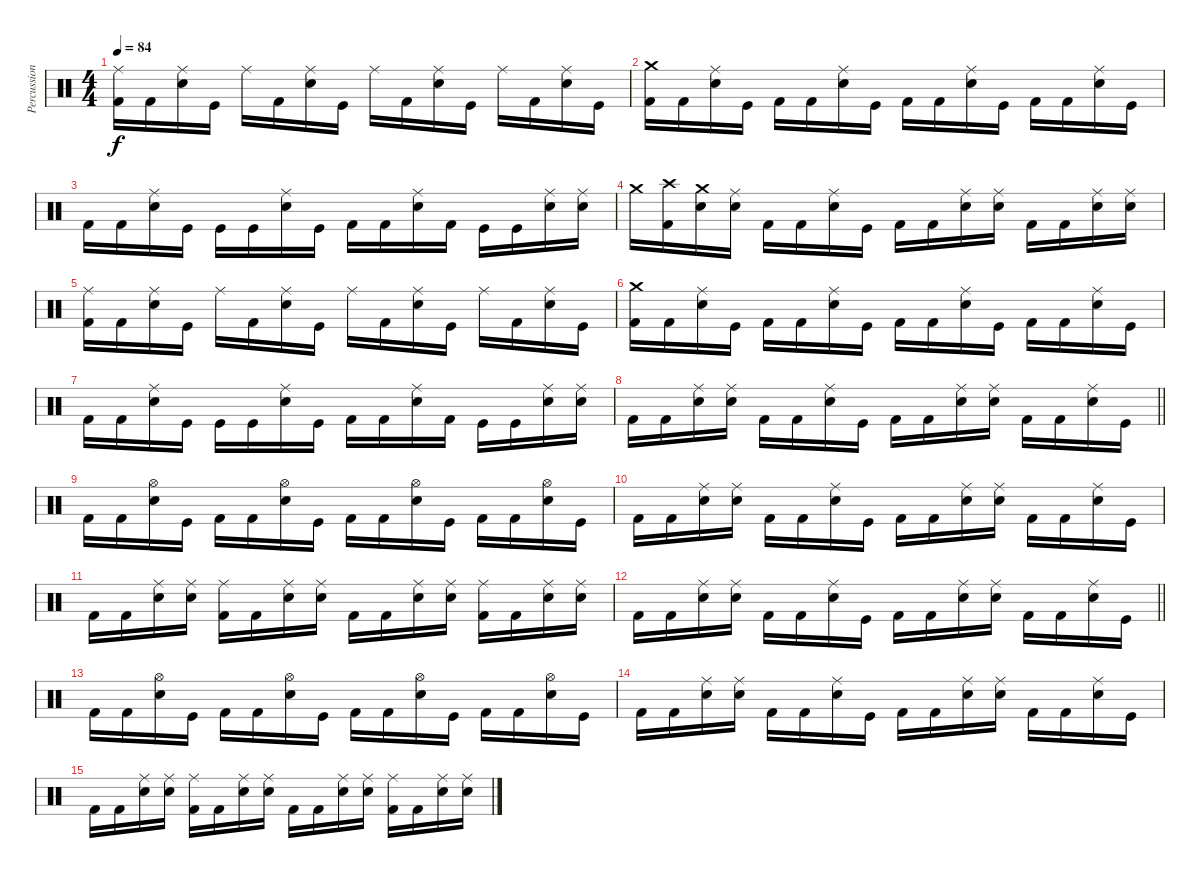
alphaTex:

\track ("Percussion" "Percussion") {instrument percussion}
\staff {score}
\articulation defaults
\ts (4 4)
\tempo 84
\clef neutral
\ks c
("Kick (hit) 2" "Ride (middle)").16{dy f} "Kick (hit) 2".16 ("Snare (hit) 2" "Ride (middle)").16 "Kick (hit)".16 "Ride (middle)".16 "Kick (hit) 2".16 ("Snare (hit) 2" "Ride (middle)").16 "Kick (hit)".16 "Ride (middle)".16 "Kick (hit) 2".16 ("Snare (hit) 2" "Ride (middle)").16 "Kick (hit)".16 "Ride (middle)".16 "Kick (hit) 2".16 ("Snare (hit) 2" "Ride (middle)").16 "Kick (hit)".16 |
("Kick (hit) 2" "Crash medium (hit)").16 "Kick (hit) 2".16 ("Snare (hit) 2" "Ride (middle)").16 "Kick (hit)".16 "Kick (hit) 2".16 "Kick (hit) 2".16 ("Snare (hit) 2" "Ride (middle)").16 "Kick (hit)".16 "Kick (hit) 2".16 "Kick (hit) 2".16 ("Snare (hit) 2" "Ride (middle)").16 "Kick (hit)".16 "Kick (hit) 2".16 "Kick (hit) 2".16 ("Snare (hit) 2" "Ride (middle)").16 "Kick (hit)".16 |
"Kick (hit) 2".16 "Kick (hit) 2".16 ("Snare (hit) 2" "Ride (middle)").16 "Kick (hit)".16 "Kick (hit)".16 "Kick (hit)".16 ("Snare (hit) 2" "Ride (middle)").16 "Kick (hit)".16 "Kick (hit) 2".16 "Kick (hit) 2".16 ("Snare (hit) 2" "Ride (middle)").16 "Kick (hit) 2".16 "Kick (hit)".16 "Kick (hit)".16 ("Snare (hit) 2" "Ride (middle)").16 ("Snare (hit) 2" "Ride (middle)").16 |
"Crash medium (hit)".16 ("Kick (hit) 2" "Crash high (hit)").16 ("Snare (hit) 2" "Crash medium (hit)").16 ("Snare (hit) 2" "Ride (middle)").16 "Kick (hit) 2".16 "Kick (hit) 2".16 ("Snare (hit) 2" "Ride (middle)").16 "Kick (hit)".16 "Kick (hit) 2".16 "Kick (hit) 2".16 ("Snare (hit) 2" "Ride (middle)").16 ("Snare (hit) 2" "Ride (middle)").16 "Kick (hit) 2".16 "Kick (hit) 2".16 ("Snare (hit) 2" "Ride (middle)").16 ("Snare (hit) 2" "Ride (middle)").16 |
("Kick (hit) 2" "Ride (middle)").16 "Kick (hit) 2".16 ("Snare (hit) 2" "Ride (middle)").16 "Kick (hit)".16 "Ride (middle)".16 "Kick (hit) 2".16 ("Snare (hit) 2" "Ride (middle)").16 "Kick (hit)".16 "Ride (middle)".16 "Kick (hit) 2".16 ("Snare (hit) 2" "Ride (middle)").16 "Kick (hit)".16 "Ride (middle)".16 "Kick (hit) 2".16 ("Snare (hit) 2" "Ride (middle)").16 "Kick (hit)".16 |
("Kick (hit) 2" "Crash medium (hit)").16 "Kick (hit) 2".16 ("Snare (hit) 2" "Ride (middle)").16 "Kick (hit)".16 "Kick (hit) 2".16 "Kick (hit) 2".16 ("Snare (hit) 2" "Ride (middle)").16 "Kick (hit)".16 "Kick (hit) 2".16 "Kick (hit) 2".16 ("Snare (hit) 2" "Ride (middle)").16 "Kick (hit)".16 "Kick (hit) 2".16 "Kick (hit) 2".16 ("Snare (hit) 2" "Ride (middle)").16 "Kick (hit)".16 |
"Kick (hit) 2".16 "Kick (hit) 2".16 ("Snare (hit) 2" "Ride (middle)").16 "Kick (hit)".16 "Kick (hit)".16 "Kick (hit)".16 ("Snare (hit) 2" "Ride (middle)").16 "Kick (hit)".16 "Kick (hit) 2".16 "Kick (hit) 2".16 ("Snare (hit) 2" "Ride (middle)").16 "Kick (hit) 2".16 "Kick (hit)".16 "Kick (hit)".16 ("Snare (hit) 2" "Ride (middle)").16 ("Snare (hit) 2" "Ride (middle)").16 |
\barLineRight lightlight "Kick (hit) 2".16 "Kick (hit) 2".16
("Ride (middle)" "Snare (hit) 2").16 ("Ride (middle)" "Snare (hit) 2").16 "Kick (hit) 2".16 "Kick (hit) 2".16 ("Ride (middle)" "Snare (hit) 2").16 "Kick (hit)".16 "Kick (hit) 2".16 "Kick (hit) 2".16 ("Ride (middle)" "Snare (hit) 2").16 ("Ride (middle)" "Snare (hit) 2").16 "Kick (hit) 2".16 "Kick (hit) 2".16 ("Ride (middle)" "Snare (hit) 2").16 "Kick (hit)".16 |
\section ("" "")
"Kick (hit) 2".16 "Kick (hit) 2".16 ("Hi-Hat (open)" "Snare (hit) 2").16 "Kick (hit)".16 "Kick (hit) 2".16 "Kick (hit) 2".16 ("Hi-Hat (open)" "Snare (hit) 2").16 "Kick (hit)".16 "Kick (hit) 2".16 "Kick (hit) 2".16 ("Hi-Hat (open)" "Snare (hit) 2").16 "Kick (hit)".16 "Kick (hit) 2".16 "Kick (hit) 2".16 ("Hi-Hat (open)" "Snare (hit) 2").16 "Kick (hit)".16 |
"Kick (hit) 2".16 "Kick (hit) 2".16 ("Ride (middle)" "Snare (hit) 2").16 ("Ride (middle)" "Snare (hit) 2").16 "Kick (hit) 2".16 "Kick (hit) 2".16 ("Ride (middle)" "Snare (hit) 2").16 "Kick (hit)".16 "Kick (hit) 2".16 "Kick (hit) 2".16 ("Ride (middle)" "Snare (hit) 2").16 ("Ride (middle)" "Snare (hit) 2").16 "Kick (hit) 2".16 "Kick (hit) 2".16 ("Ride (middle)" "Snare (hit) 2").16 "Kick (hit)".16 |
"Kick (hit) 2".16 "Kick (hit) 2".16 ("Ride (middle)" "Snare (hit) 2").16 ("Ride (middle)" "Snare (hit) 2").16 ("Ride (middle)" "Kick (hit) 2").16 "Kick (hit) 2".16 ("Ride (middle)" "Snare (hit) 2").16 ("Ride (middle)" "Snare (hit) 2").16 "Kick (hit) 2".16 "Kick (hit) 2".16 ("Ride (middle)" "Snare (hit) 2").16 ("Ride (middle)" "Snare (hit) 2").16 ("Ride (middle)" "Kick (hit) 2").16 "Kick (hit) 2".16 ("Ride (middle)" "Snare (hit) 2").16 ("Ride (middle)" "Snare (hit) 2").16 |
\barLineRight lightlight "Kick (hit) 2".16 "Kick (hit) 2".16
("Ride (middle)" "Snare (hit) 2").16 ("Ride (middle)" "Snare (hit) 2").16 "Kick (hit) 2".16 "Kick (hit) 2".16 ("Ride (middle)" "Snare (hit) 2").16 "Kick (hit)".16 "Kick (hit) 2".16 "Kick (hit) 2".16 ("Ride (middle)" "Snare (hit) 2").16 ("Ride (middle)" "Snare (hit) 2").16 "Kick (hit) 2".16 "Kick (hit) 2".16 ("Ride (middle)" "Snare (hit) 2").16 "Kick (hit)".16 |
"Kick (hit) 2".16 "Kick (hit) 2".16 ("Hi-Hat (open)" "Snare (hit) 2").16 "Kick (hit)".16 "Kick (hit) 2".16 "Kick (hit) 2".16 ("Hi-Hat (open)" "Snare (hit) 2").16 "Kick (hit)".16 "Kick (hit) 2".16 "Kick (hit) 2".16 ("Hi-Hat (open)" "Snare (hit) 2").16 "Kick (hit)".16 "Kick (hit) 2".16 "Kick (hit) 2".16 ("Hi-Hat (open)" "Snare (hit) 2").16 "Kick (hit)".16 |
"Kick (hit) 2".16 "Kick (hit) 2".16 ("Ride (middle)" "Snare (hit) 2").16 ("Ride (middle)" "Snare (hit) 2").16 "Kick (hit) 2".16 "Kick (hit) 2".16 ("Ride (middle)" "Snare (hit) 2").16 "Kick (hit)".16 "Kick (hit) 2".16 "Kick (hit) 2".16 ("Ride (middle)" "Snare (hit) 2").16 ("Ride (middle)" "Snare (hit) 2").16 "Kick (hit) 2".16 "Kick (hit) 2".16 ("Ride (middle)" "Snare (hit) 2").16 "Kick (hit)".16 |
"Kick (hit) 2".16 "Kick (hit) 2".16 ("Ride (middle)" "Snare (hit) 2").16 ("Ride (middle)" "Snare (hit) 2").16 ("Ride (middle)" "Kick (hit) 2").16 "Kick (hit) 2".16 ("Ride (middle)" "Snare (hit) 2").16 ("Ride (middle)" "Snare (hit) 2").16 "Kick (hit) 2".16 "Kick (hit) 2".16 ("Ride (middle)" "Snare (hit) 2").16 ("Ride (middle)" "Snare (hit) 2").16 ("Ride (middle)" "Kick (hit) 2").16 "Kick (hit) 2".16 ("Ride (middle)" "Snare (hit) 2").16 ("Ride (middle)" "Snare (hit) 2").16
